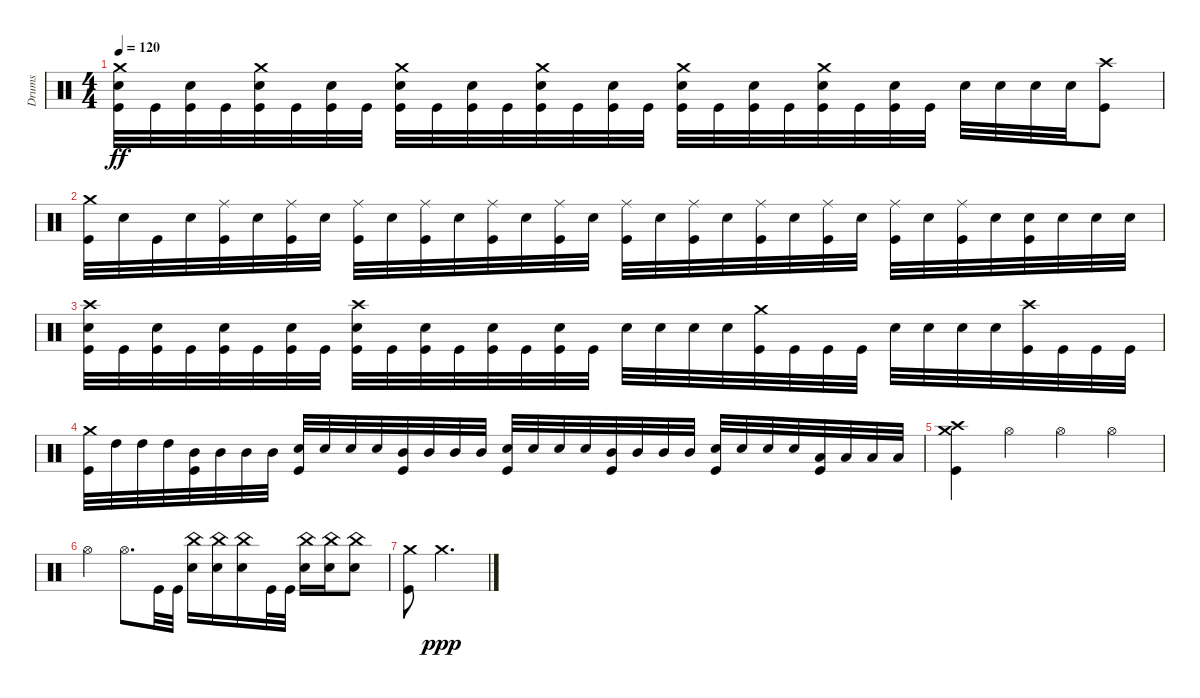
\track ("Drums" "Drums") {instrument percussion}
\staff {score}
\articulation defaults
\ts (4 4)
\tempo 120
\clef neutral
\ks c
("Kick (hit)" "Snare (hit) 2" "Crash medium (hit)").32{dy ff} "Kick (hit)".32 ("Kick (hit)" "Snare (hit) 2").32 "Kick (hit)".32 ("Kick (hit)" "Snare (hit) 2" "Crash medium (hit)").32 "Kick (hit)".32 ("Kick (hit)" "Snare (hit) 2").32 "Kick (hit)".32 ("Kick (hit)" "Snare (hit) 2" "Crash medium (hit)").32 "Kick (hit)".32 ("Kick (hit)" "Snare (hit) 2").32 "Kick (hit)".32 ("Kick (hit)" "Snare (hit) 2" "Crash medium (hit)").32 "Kick (hit)".32 ("Kick (hit)" "Snare (hit) 2").32 "Kick (hit)".32 ("Kick (hit)" "Snare (hit) 2" "Crash medium (hit)").32 "Kick (hit)".32 ("Kick (hit)" "Snare (hit) 2").32 "Kick (hit)".32 ("Kick (hit)" "Snare (hit) 2" "Crash medium (hit)").32 "Kick (hit)".32 ("Kick (hit)" "Snare (hit) 2").32 "Kick (hit)".32 "Snare (hit) 2".32 "Snare (hit) 2".32 "Snare (hit) 2".32 "Snare (hit) 2".32 ("Kick (hit)" "Crash high (hit)").8 |
("Kick (hit)" "Crash medium (hit)").32 "Snare (hit) 2".32 "Kick (hit)".32 "Snare (hit) 2".32 ("Kick (hit)" "Ride (middle)").32 "Snare (hit) 2".32 ("Kick (hit)" "Ride (middle)").32 "Snare (hit) 2".32 ("Kick (hit)" "Ride (middle)").32 "Snare (hit) 2".32 ("Kick (hit)" "Ride (middle)").32 "Snare (hit) 2".32 ("Kick (hit)" "Ride (middle)").32 "Snare (hit) 2".32 ("Kick (hit)" "Ride (middle)").32 "Snare (hit) 2".32 ("Kick (hit)" "Ride (middle)").32 "Snare (hit) 2".32 ("Kick (hit)" "Ride (middle)").32 "Snare (hit) 2".32 ("Kick (hit)" "Ride (middle)").32 "Snare (hit) 2".32 ("Kick (hit)" "Ride (middle)").32 "Snare (hit) 2".32 ("Kick (hit)" "Ride (middle)").32 "Snare (hit) 2".32 ("Kick (hit)" "Ride (middle)").32 "Snare (hit) 2".32 ("Snare (hit) 2" "Kick (hit)").32 "Snare (hit) 2".32 "Snare (hit) 2".32 "Snare (hit) 2".32 |
("Kick (hit)" "Crash high (hit)" "Snare (hit) 2").32 "Kick (hit)".32 ("Kick (hit)" "Snare (hit) 2").32 "Kick (hit)".32 ("Kick (hit)" "Snare (hit) 2").32 "Kick (hit)".32 ("Kick (hit)" "Snare (hit) 2").32 "Kick (hit)".32 ("Kick (hit)" "Snare (hit) 2" "Crash high (hit)").32 "Kick (hit)".32 ("Kick (hit)" "Snare (hit) 2").32 "Kick (hit)".32 ("Kick (hit)" "Snare (hit) 2").32 "Kick (hit)".32 ("Kick (hit)" "Snare (hit) 2").32 "Kick (hit)".32 "Snare (hit) 2".32 "Snare (hit) 2".32 "Snare (hit) 2".32 "Snare (hit) 2".32 ("Kick (hit)" "Crash medium (hit)").32 "Kick (hit)".32 "Kick (hit)".32 "Kick (hit)".32 "Snare (hit) 2".32 "Snare (hit) 2".32 "Snare (hit) 2".32 "Snare (hit) 2".32 ("Kick (hit)" "Crash high (hit)").32 "Kick (hit)".32 "Kick (hit)".32 "Kick (hit)".32 |
("Kick (hit)" "Crash medium (hit)").32 "High Tom (hit)".32 "High Tom (hit)".32 "High Tom (hit)".32 ("Mid Tom (hit)" "Kick (hit)").32 "Mid Tom (hit)".32 "Mid Tom (hit)".32 "Mid Tom (hit)".32 ("Kick (hit)" "Snare (hit) 2").32 "Snare (hit) 2".32 "Snare (hit) 2".32 "Snare (hit) 2".32 ("Mid Tom (hit)" "Kick (hit)").32 "Mid Tom (hit)".32 "Mid Tom (hit)".32 "Mid Tom (hit)".32 ("Snare (hit) 2" "Kick (hit)").32 "Snare (hit) 2".32 "Snare (hit) 2".32 "Snare (hit) 2".32 ("Kick (hit)" "Mid Tom (hit)").32 "Mid Tom (hit)".32 "Mid Tom (hit)".32 "Mid Tom (hit)".32 ("Snare (hit) 2" "Kick (hit)").32 "Snare (hit) 2".32 "Snare (hit) 2".32 "Snare (hit) 2".32 ("Kick (hit)" "Low Tom (hit)").32 "Low Tom (hit)".32 "Low Tom (hit)".32 "Low Tom (hit)".32 |
("Kick (hit)" "Crash medium (hit)" "Crash high (hit)").4 "Hi-Hat (open)".4 "Hi-Hat (open)".4 "Hi-Hat (open)".4 |
"Hi-Hat (open)".4 "Hi-Hat (open)".8{d} "Kick (hit)".32 "Kick (hit)".32 ("Snare (hit) 2" "China (hit)").16 ("Snare (hit) 2" "China (hit)").16 ("Snare (hit) 2" "China (hit)").16 "Kick (hit)".32 "Kick (hit)".32 ("Snare (hit) 2" "China (hit)").16 ("Snare (hit) 2" "China (hit)").16 ("Snare (hit) 2" "China (hit)").8 |
("Kick (hit)" "Crash medium (hit)").8 "Crash medium (hit)".2{d dy ppp}
